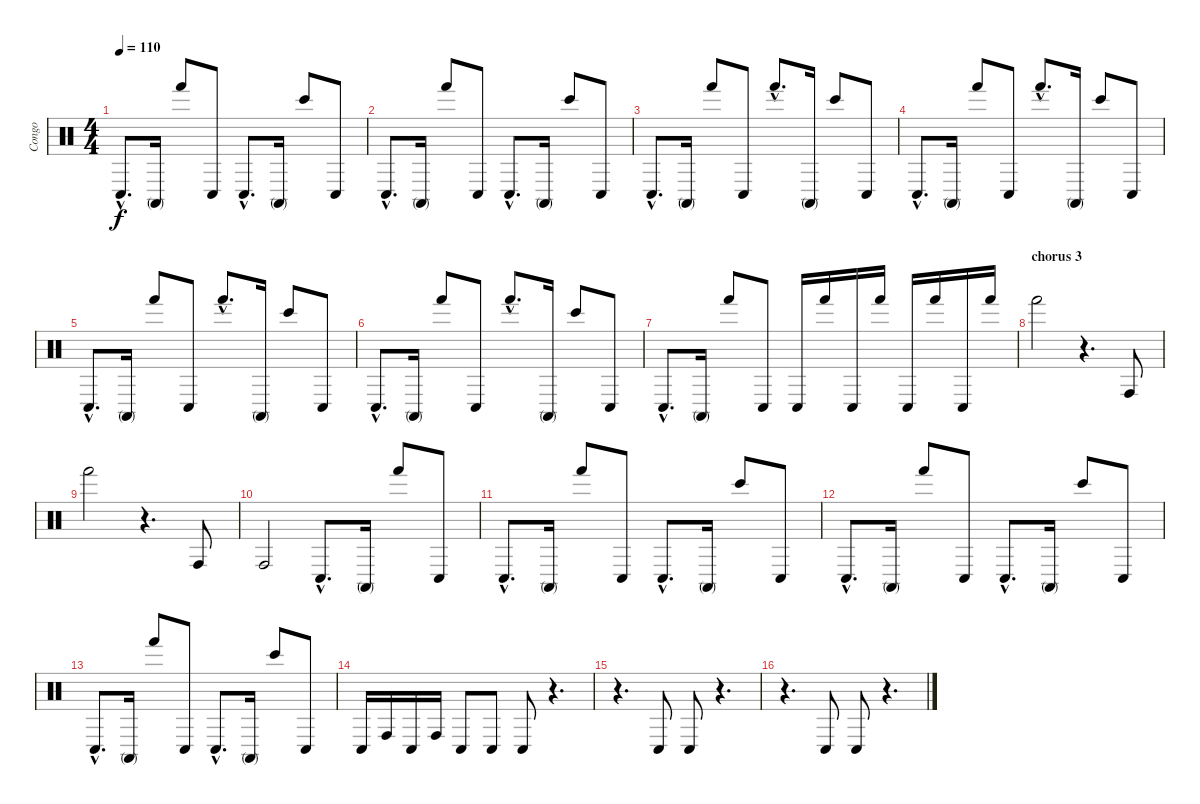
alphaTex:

\track ("Congo" "Congo") {instrument percussion}
\staff {score}
\articulation defaults
\ts (4 4)
\tempo 110
\clef neutral
\ks c "Conga low (hit)"{hac}.8{d dy f} "Conga high (mute)".16 "Hand (hit)".8 "Conga low (hit)".8 "Conga low (hit)"{hac}.8{d} "Conga high (mute)".16 "Bongo High (hit)".8 "Conga low (hit)".8
|
"Conga low (hit)"{hac}.8{d} "Conga high (mute)".16 "Hand (hit)".8 "Conga low (hit)".8 "Conga low (hit)"{hac}.8{d} "Conga high (mute)".16 "Bongo High (hit)".8 "Conga low (hit)".8 |
"Conga low (hit)"{hac}.8{d} "Conga high (mute)".16 "Hand (hit)".8 "Conga low (hit)".8 "Hand (hit)"{hac}.8{d} "Conga high (mute)".16 "Bongo High (hit)".8 "Conga low (hit)".8 |
"Conga low (hit)"{hac}.8{d} "Conga high (mute)".16 "Hand (hit)".8 "Conga low (hit)".8 "Hand (hit)"{hac}.8{d} "Conga high (mute)".16 "Bongo High (hit)".8 "Conga low (hit)".8 |
"Conga low (hit)"{hac}.8{d} "Conga high (mute)".16 "Hand (hit)".8 "Conga low (hit)".8 "Hand (hit)"{hac}.8{d} "Conga high (mute)".16 "Bongo High (hit)".8 "Conga low (hit)".8 |
"Conga low (hit)"{hac}.8{d} "Conga high (mute)".16 "Hand (hit)".8 "Conga low (hit)".8 "Hand (hit)"{hac}.8{d} "Conga high (mute)".16 "Bongo High (hit)".8 "Conga low (hit)".8 |
"Conga low (hit)"{hac}.8{d} "Conga high (mute)".16 "Hand (hit)".8 "Conga low (hit)".8 "Conga low (hit)".16 "Hand (hit)".16 "Conga low (hit)".16 "Hand (hit)".16 "Conga low (hit)".16 "Hand (hit)".16 "Conga low (hit)".16 "Hand (hit)".16 |
\section ("" "chorus 3")
"Hand (hit)".2 r.4{d} "Conga high (hit)".8 |
"Hand (hit)".2 r.4{d} "Conga high (hit)".8 |
"Conga high (hit)".2 "Conga low (hit)"{hac}.8{d} "Conga high (mute)".16 "Hand (hit)".8 "Conga low (hit)".8 |
"Conga low (hit)"{hac}.8{d} "Conga high (mute)".16 "Hand (hit)".8 "Conga low (hit)".8 "Conga low (hit)"{hac}.8{d} "Conga high (mute)".16 "Bongo High (hit)".8 "Conga low (hit)".8 |
"Conga low (hit)"{hac}.8{d} "Conga high (mute)".16 "Hand (hit)".8 "Conga low (hit)".8 "Conga low (hit)"{hac}.8{d} "Conga high (mute)".16 "Bongo High (hit)".8 "Conga low (hit)".8 |
"Conga low (hit)"{hac}.8{d} "Conga high (mute)".16 "Hand (hit)".8 "Conga low (hit)".8 "Conga low (hit)"{hac}.8{d} "Conga high (mute)".16 "Bongo High (hit)".8 "Conga low (hit)".8 |
"Conga low (hit)".16 "Conga high (hit)".16 "Conga low (hit)".16 "Conga high (hit)".16 "Conga low (hit)".8 "Conga low (hit)".8 "Conga low (hit)".8 r.4{d} |
r.4{d} "Conga low (hit)".8 "Conga low (hit)".8 r.4{d} |
r.4{d} "Conga low (hit)".8 "Conga low (hit)".8 r.4{d}
